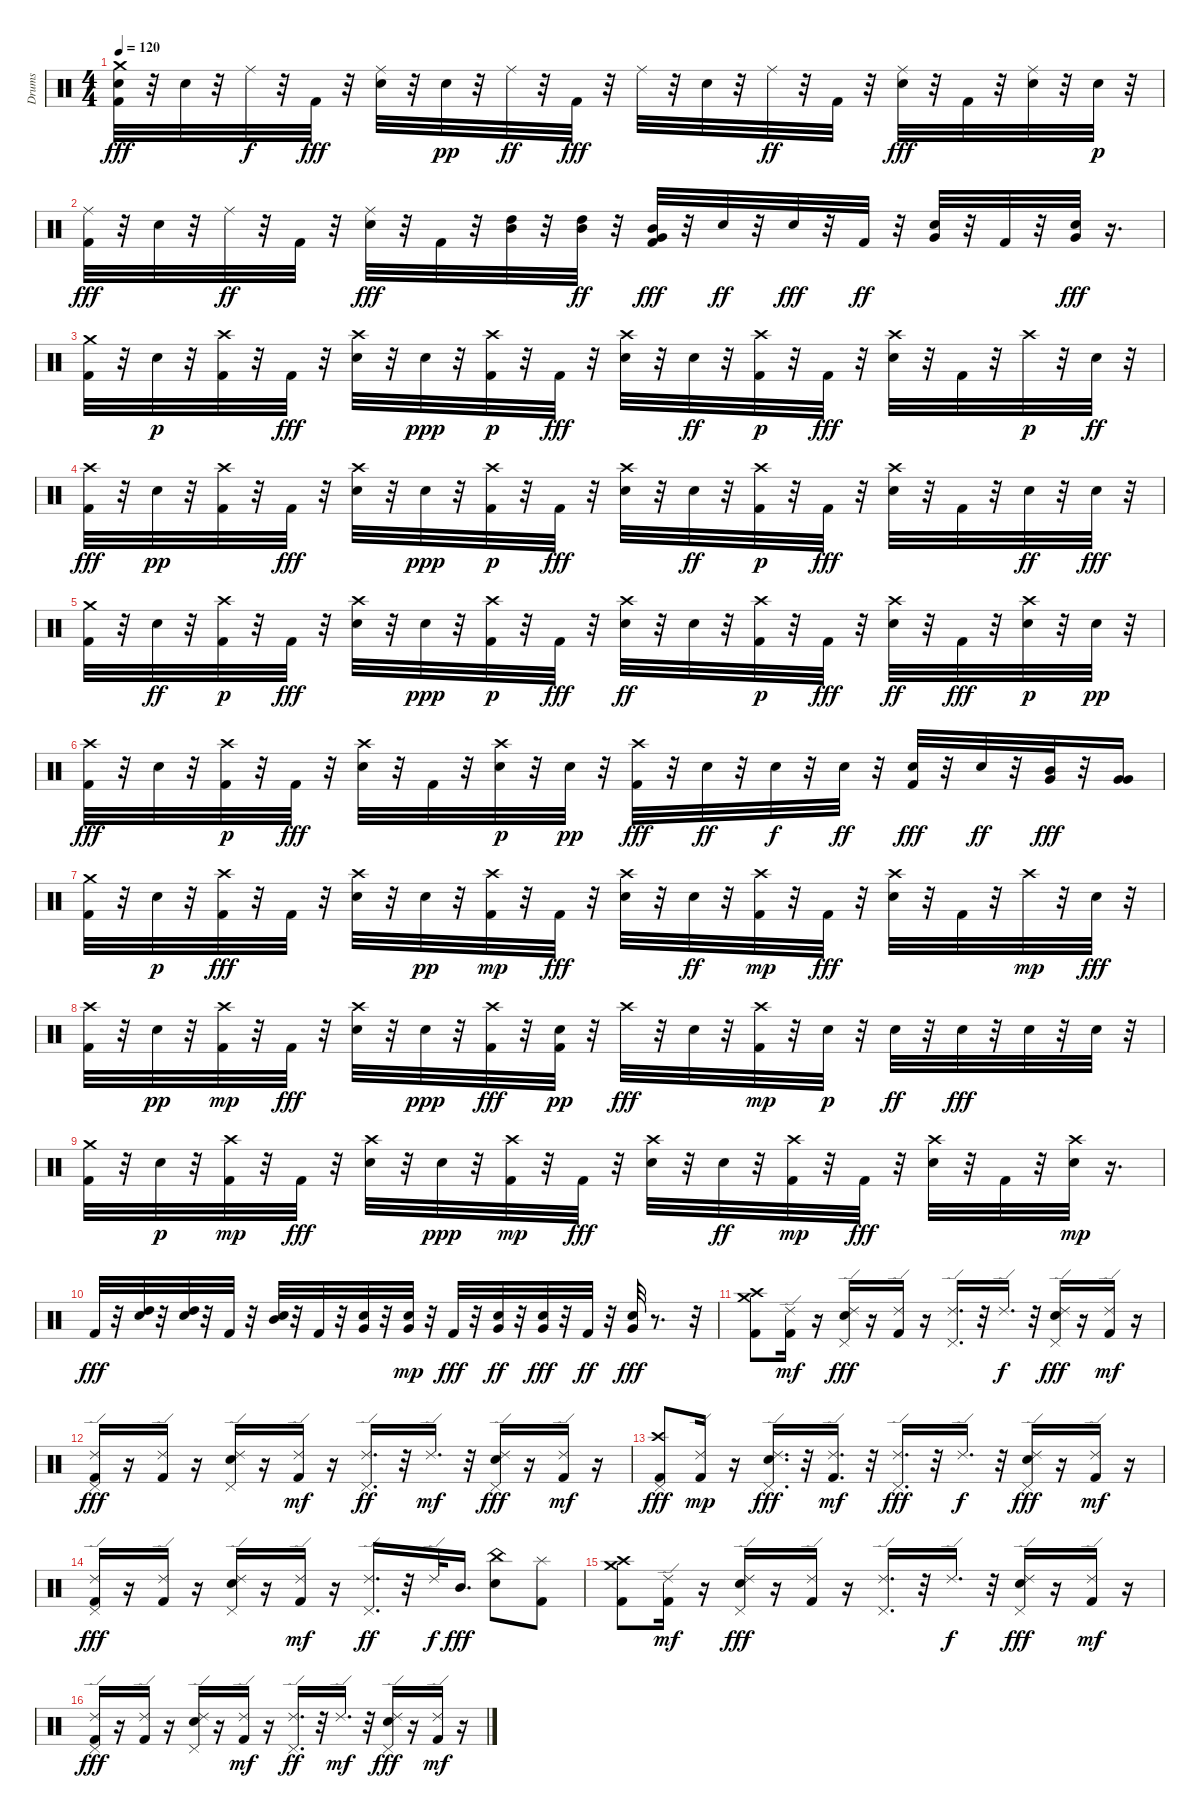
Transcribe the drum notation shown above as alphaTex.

\track ("Drums" "Drums") {instrument percussion}
\staff {score}
\articulation defaults
\ts (4 4)
\tempo 120
\clef neutral
\ks c
("Snare (hit) 2" "Kick (hit) 2" "Crash medium (hit)").32{dy fff} r.32 "Snare (hit) 2".32 r.32 "Ride (middle)".32{dy f} r.32 "Kick (hit) 2".32{dy fff} r.32 ("Snare (hit) 2" "Ride (middle)").32 r.32 "Snare (hit) 2".32{dy pp} r.32 "Ride (middle)".32{dy ff} r.32 "Kick (hit) 2".32{dy fff} r.32 "Ride (middle)".32 r.32 "Snare (hit) 2".32 r.32 "Ride (middle)".32{dy ff} r.32 "Kick (hit) 2".32 r.32 ("Snare (hit) 2" "Ride (middle)").32{dy fff} r.32 "Kick (hit) 2".32 r.32 ("Snare (hit) 2" "Ride (middle)").32 r.32 "Snare (hit) 2".32{dy p} r.32 |
("Ride (middle)" "Kick (hit) 2").32{dy fff} r.32 "Snare (hit) 2".32 r.32 "Ride (middle)".32{dy ff} r.32 "Kick (hit) 2".32 r.32 ("Snare (hit) 2" "Ride (middle)").32{dy fff} r.32 "Kick (hit) 2".32 r.32 ("High Tom (hit)" "Mid Tom (hit)").32 r.32 ("Mid Tom (hit)" "High Tom (hit)").32{dy ff} r.32 ("Very Low Tom (hit)" "Kick (hit) 2" "Mid Tom (hit)").32{dy fff} r.32 "Snare (hit) 2".32{dy ff} r.32 "Snare (hit) 2".32{dy fff} r.32 "Kick (hit) 2".32{dy ff} r.32 ("Snare (hit) 2" "Very Low Tom (hit)").32 r.32 "Kick (hit) 2".32 r.32 ("Snare (hit) 2" "Very Low Tom (hit)").32{dy fff} r.16{d} |
("Kick (hit) 2" "Crash medium (hit)").32 r.32 "Snare (hit) 2".32{dy p} r.32 ("Kick (hit) 2" "Crash high (hit)").32 r.32 "Kick (hit) 2".32{dy fff} r.32 ("Snare (hit) 2" "Crash high (hit)").32 r.32 "Snare (hit) 2".32{dy ppp} r.32 ("Kick (hit) 2" "Crash high (hit)").32{dy p} r.32 "Kick (hit) 2".32{dy fff} r.32 ("Snare (hit) 2" "Crash high (hit)").32 r.32 "Snare (hit) 2".32{dy ff} r.32 ("Kick (hit) 2" "Crash high (hit)").32{dy p} r.32 "Kick (hit) 2".32{dy fff} r.32 ("Snare (hit) 2" "Crash high (hit)").32 r.32 "Kick (hit) 2".32 r.32 "Crash high (hit)".32{dy p} r.32 "Snare (hit) 2".32{dy ff} r.32 |
("Kick (hit) 2" "Crash high (hit)").32{dy fff} r.32 "Snare (hit) 2".32{dy pp} r.32 ("Kick (hit) 2" "Crash high (hit)").32 r.32 "Kick (hit) 2".32{dy fff} r.32 ("Snare (hit) 2" "Crash high (hit)").32 r.32 "Snare (hit) 2".32{dy ppp} r.32 ("Kick (hit) 2" "Crash high (hit)").32{dy p} r.32 "Kick (hit) 2".32{dy fff} r.32 ("Snare (hit) 2" "Crash high (hit)").32 r.32 "Snare (hit) 2".32{dy ff} r.32 ("Kick (hit) 2" "Crash high (hit)").32{dy p} r.32 "Kick (hit) 2".32{dy fff} r.32 ("Snare (hit) 2" "Crash high (hit)").32 r.32 "Kick (hit) 2".32 r.32 "Snare (hit) 2".32{dy ff} r.32 "Snare (hit) 2".32{dy fff} r.32 |
("Crash medium (hit)" "Kick (hit) 2").32 r.32 "Snare (hit) 2".32{dy ff} r.32 ("Kick (hit) 2" "Crash high (hit)").32{dy p} r.32 "Kick (hit) 2".32{dy fff} r.32 ("Snare (hit) 2" "Crash high (hit)").32 r.32 "Snare (hit) 2".32{dy ppp} r.32 ("Kick (hit) 2" "Crash high (hit)").32{dy p} r.32 "Kick (hit) 2".32{dy fff} r.32 ("Snare (hit) 2" "Crash high (hit)").32{dy ff} r.32 "Snare (hit) 2".32 r.32 ("Kick (hit) 2" "Crash high (hit)").32{dy p} r.32 "Kick (hit) 2".32{dy fff} r.32 ("Crash high (hit)" "Snare (hit) 2").32{dy ff} r.32 "Kick (hit) 2".32{dy fff} r.32 ("Snare (hit) 2" "Crash high (hit)").32{dy p} r.32 "Snare (hit) 2".32{dy pp} r.32 |
("Kick (hit) 2" "Crash high (hit)").32{dy fff} r.32 "Snare (hit) 2".32 r.32 ("Kick (hit) 2" "Crash high (hit)").32{dy p} r.32 "Kick (hit) 2".32{dy fff} r.32 ("Snare (hit) 2" "Crash high (hit)").32 r.32 "Kick (hit) 2".32 r.32 ("Snare (hit) 2" "Crash high (hit)").32{dy p} r.32 "Snare (hit) 2".32{dy pp} r.32 ("Kick (hit) 2" "Crash high (hit)").32{dy fff} r.32 "Snare (hit) 2".32{dy ff} r.32 "Snare (hit) 2".32{dy f} r.32 "Snare (hit) 2".32{dy ff} r.32 ("Snare (hit) 2" "Kick (hit) 2").32{dy fff} r.32 "Snare (hit) 2".32{dy ff} r.32 ("Very Low Tom (hit)" "Mid Tom (hit)").32{dy fff} r.32 ("Very Low Tom (hit)" "Very Low Tom (hit)").16 |
("Kick (hit) 2" "Crash medium (hit)").32 r.32 "Snare (hit) 2".32{dy p} r.32 ("Crash high (hit)" "Kick (hit) 2").32{dy fff} r.32 "Kick (hit) 2".32 r.32 ("Snare (hit) 2" "Crash high (hit)").32 r.32 "Snare (hit) 2".32{dy pp} r.32 ("Kick (hit) 2" "Crash high (hit)").32{dy mp} r.32 "Kick (hit) 2".32{dy fff} r.32 ("Snare (hit) 2" "Crash high (hit)").32 r.32 "Snare (hit) 2".32{dy ff} r.32 ("Kick (hit) 2" "Crash high (hit)").32{dy mp} r.32 "Kick (hit) 2".32{dy fff} r.32 ("Snare (hit) 2" "Crash high (hit)").32 r.32 "Kick (hit) 2".32 r.32 "Crash high (hit)".32{dy mp} r.32 "Snare (hit) 2".32{dy fff} r.32 |
("Kick (hit) 2" "Crash high (hit)").32 r.32 "Snare (hit) 2".32{dy pp} r.32 ("Kick (hit) 2" "Crash high (hit)").32{dy mp} r.32 "Kick (hit) 2".32{dy fff} r.32 ("Snare (hit) 2" "Crash high (hit)").32 r.32 "Snare (hit) 2".32{dy ppp} r.32 ("Crash high (hit)" "Kick (hit) 2").32{dy fff} r.32 ("Kick (hit) 2" "Snare (hit) 2").32{dy pp} r.32 "Crash high (hit)".32{dy fff} r.32 "Snare (hit) 2".32 r.32 ("Kick (hit) 2" "Crash high (hit)").32{dy mp} r.32 "Snare (hit) 2".32{dy p} r.32 "Snare (hit) 2".32{dy ff} r.32 "Snare (hit) 2".32{dy fff} r.32 "Snare (hit) 2".32 r.32 "Snare (hit) 2".32 r.32 |
("Kick (hit) 2" "Crash medium (hit)").32 r.32 "Snare (hit) 2".32{dy p} r.32 ("Kick (hit) 2" "Crash high (hit)").32{dy mp} r.32 "Kick (hit) 2".32{dy fff} r.32 ("Snare (hit) 2" "Crash high (hit)").32 r.32 "Snare (hit) 2".32{dy ppp} r.32 ("Kick (hit) 2" "Crash high (hit)").32{dy mp} r.32 "Kick (hit) 2".32{dy fff} r.32 ("Snare (hit) 2" "Crash high (hit)").32 r.32 "Snare (hit) 2".32{dy ff} r.32 ("Kick (hit) 2" "Crash high (hit)").32{dy mp} r.32 "Kick (hit) 2".32{dy fff} r.32 ("Snare (hit) 2" "Crash high (hit)").32 r.32 "Kick (hit) 2".32 r.32 ("Snare (hit) 2" "Crash high (hit)").32{dy mp} r.16{d} |
"Kick (hit) 2".32{dy fff} r.32 ("High Tom (hit)" "Snare (hit) 2").32 r.32 ("Snare (hit) 2" "High Tom (hit)").32 r.32 "Kick (hit) 2".32 r.32 ("Snare (hit) 2" "Mid Tom (hit)").32 r.32 "Kick (hit) 2".32 r.32 ("Snare (hit) 2" "Very Low Tom (hit)").32 r.32 ("Snare (hit) 2" "Very Low Tom (hit)").32{dy mp} r.32 "Kick (hit) 2".32{dy fff} r.32 ("Snare (hit) 2" "Very Low Tom (hit)").32{dy ff} r.32 ("Snare (hit) 2" "Very Low Tom (hit)").32{dy fff} r.32 "Kick (hit) 2".32{dy ff} r.32 ("Snare (hit) 2" "Very Low Tom (hit)").32{dy fff} r.8{d} r.32 |
("Crash medium (hit)" "Kick (hit) 2" "Crash high (hit)").8 ("Kick (hit) 2" "Ride (edge) 2").16{dy mf} r.16 ("Ride (edge) 2" "Pedal Hi-Hat (hit)" "Snare (hit) 2").16{dy fff} r.16 ("Kick (hit) 2" "Ride (edge) 2").16 r.16 ("Pedal Hi-Hat (hit)" "Ride (edge) 2").16{d} r.32 "Ride (edge) 2".16{d dy f} r.32 ("Pedal Hi-Hat (hit)" "Snare (hit) 2" "Ride (edge) 2").16{dy fff} r.16 ("Kick (hit) 2" "Ride (edge) 2").16{dy mf} r.16 |
("Ride (edge) 2" "Pedal Hi-Hat (hit)" "Kick (hit) 2").16{dy fff} r.16 ("Ride (edge) 2" "Kick (hit) 2").16 r.16 ("Snare (hit) 2" "Pedal Hi-Hat (hit)" "Ride (edge) 2").16 r.16 ("Kick (hit) 2" "Ride (edge) 2").16{dy mf} r.16 ("Pedal Hi-Hat (hit)" "Ride (edge) 2").16{d dy ff} r.32 "Ride (edge) 2".16{d dy mf} r.32 ("Pedal Hi-Hat (hit)" "Snare (hit) 2" "Ride (edge) 2").16{dy fff} r.16 ("Kick (hit) 2" "Ride (edge) 2").16{dy mf} r.16 |
("Pedal Hi-Hat (hit)" "Crash high (hit)" "Kick (hit) 2").8{dy fff} ("Kick (hit) 2" "Ride (edge) 2").16{dy mp} r.16 ("Snare (hit) 2" "Ride (edge) 2" "Pedal Hi-Hat (hit)").16{d dy fff} r.32 ("Kick (hit) 2" "Ride (edge) 2").16{d dy mf} r.32 ("Pedal Hi-Hat (hit)" "Ride (edge) 2").16{d dy fff} r.32 "Ride (edge) 2".16{d dy f} r.32 ("Pedal Hi-Hat (hit)" "Snare (hit) 2" "Ride (edge) 2").16{dy fff} r.16 ("Kick (hit) 2" "Ride (edge) 2").16{dy mf} r.16 |
("Ride (edge) 2" "Pedal Hi-Hat (hit)" "Kick (hit) 2").16{dy fff} r.16 ("Ride (edge) 2" "Kick (hit) 2").16 r.16 ("Snare (hit) 2" "Pedal Hi-Hat (hit)" "Ride (edge) 2").16 r.16 ("Kick (hit) 2" "Ride (edge) 2").16{dy mf} r.16 ("Pedal Hi-Hat (hit)" "Ride (edge) 2").16{d dy ff} r.32 "Ride (edge) 2".32{dy f} "Mid Tom (hit)".16{d dy fff} ("Snare (hit) 2" "China (hit)").8 ("Splash (hit)" "Kick (hit) 2").8 |
("Crash medium (hit)" "Kick (hit) 2" "Crash high (hit)").8 ("Kick (hit) 2" "Ride (edge) 2").16{dy mf} r.16 ("Ride (edge) 2" "Pedal Hi-Hat (hit)" "Snare (hit) 2").16{dy fff} r.16 ("Kick (hit) 2" "Ride (edge) 2").16 r.16 ("Pedal Hi-Hat (hit)" "Ride (edge) 2").16{d} r.32 "Ride (edge) 2".16{d dy f} r.32 ("Pedal Hi-Hat (hit)" "Snare (hit) 2" "Ride (edge) 2").16{dy fff} r.16 ("Kick (hit) 2" "Ride (edge) 2").16{dy mf} r.16 |
("Ride (edge) 2" "Pedal Hi-Hat (hit)" "Kick (hit) 2").16{dy fff} r.16 ("Ride (edge) 2" "Kick (hit) 2").16 r.16 ("Snare (hit) 2" "Pedal Hi-Hat (hit)" "Ride (edge) 2").16 r.16 ("Kick (hit) 2" "Ride (edge) 2").16{dy mf} r.16 ("Pedal Hi-Hat (hit)" "Ride (edge) 2").16{d dy ff} r.32 "Ride (edge) 2".16{d dy mf} r.32 ("Pedal Hi-Hat (hit)" "Snare (hit) 2" "Ride (edge) 2").16{dy fff} r.16 ("Kick (hit) 2" "Ride (edge) 2").16{dy mf} r.16
